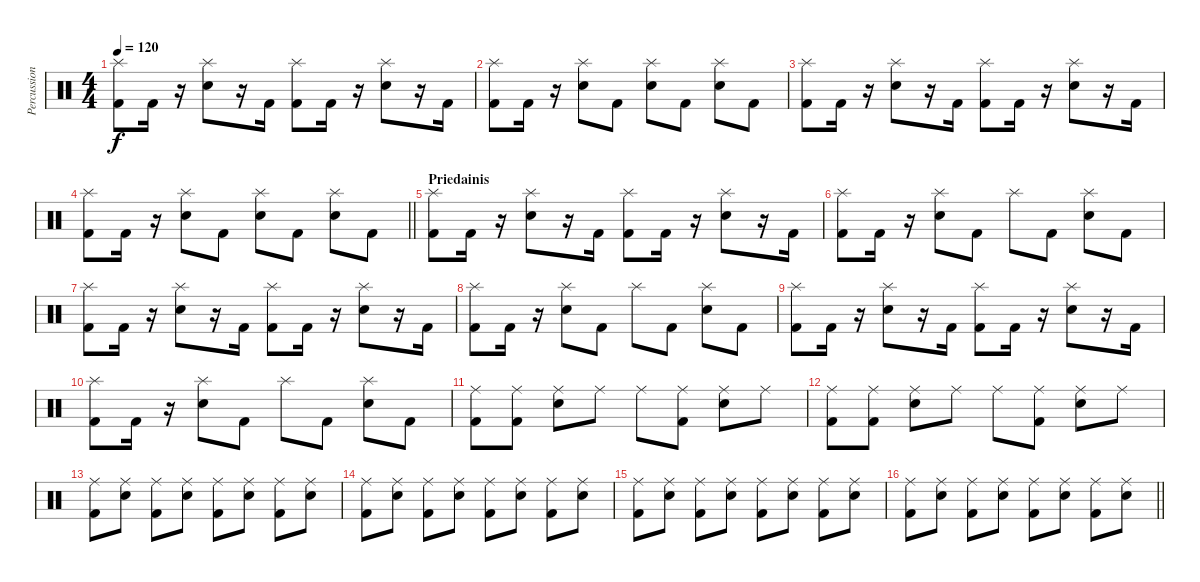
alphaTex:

\track ("Percussions" "Percussion") {instrument percussion}
\staff {score}
\articulation defaults
\ts (4 4)
\tempo 120
\clef neutral
\ks c
("Splash (hit)" "Kick (hit) 2").8{dy f} "Kick (hit) 2".16 r.16 ("Splash (hit)" "Electric Snare (hit)").8 r.16 "Kick (hit) 2".16 ("Splash (hit)" "Kick (hit) 2").8 "Kick (hit) 2".16 r.16 ("Splash (hit)" "Electric Snare (hit)").8 r.16 "Kick (hit) 2".16 |
("Splash (hit)" "Kick (hit) 2").8 "Kick (hit) 2".16 r.16 ("Splash (hit)" "Electric Snare (hit)").8 "Kick (hit) 2".8 ("Splash (hit)" "Electric Snare (hit)").8 "Kick (hit) 2".8 ("Splash (hit)" "Electric Snare (hit)").8 "Kick (hit) 2".8 |
("Splash (hit)" "Kick (hit) 2").8 "Kick (hit) 2".16 r.16 ("Splash (hit)" "Electric Snare (hit)").8 r.16 "Kick (hit) 2".16 ("Splash (hit)" "Kick (hit) 2").8 "Kick (hit) 2".16 r.16 ("Splash (hit)" "Electric Snare (hit)").8 r.16 "Kick (hit) 2".16 |
\barLineRight lightlight
("Splash (hit)" "Kick (hit) 2").8 "Kick (hit) 2".16 r.16 ("Splash (hit)" "Electric Snare (hit)").8 "Kick (hit) 2".8 ("Splash (hit)" "Electric Snare (hit)").8 "Kick (hit) 2".8 ("Splash (hit)" "Electric Snare (hit)").8 "Kick (hit) 2".8 |
\section ("" "Priedainis")
("Splash (hit)" "Kick (hit) 2").8 "Kick (hit) 2".16 r.16 ("Splash (hit)" "Electric Snare (hit)").8 r.16 "Kick (hit) 2".16 ("Splash (hit)" "Kick (hit) 2").8 "Kick (hit) 2".16 r.16 ("Splash (hit)" "Electric Snare (hit)").8 r.16 "Kick (hit) 2".16 |
("Splash (hit)" "Kick (hit) 2").8 "Kick (hit) 2".16 r.16 ("Splash (hit)" "Electric Snare (hit)").8 "Kick (hit) 2".8 "Splash (hit)".8 "Kick (hit) 2".8 ("Splash (hit)" "Electric Snare (hit)").8 "Kick (hit) 2".8 |
("Splash (hit)" "Kick (hit) 2").8 "Kick (hit) 2".16 r.16 ("Splash (hit)" "Electric Snare (hit)").8 r.16 "Kick (hit) 2".16 ("Splash (hit)" "Kick (hit) 2").8 "Kick (hit) 2".16 r.16 ("Splash (hit)" "Electric Snare (hit)").8 r.16 "Kick (hit) 2".16 |
("Splash (hit)" "Kick (hit) 2").8 "Kick (hit) 2".16 r.16 ("Splash (hit)" "Electric Snare (hit)").8 "Kick (hit) 2".8 "Splash (hit)".8 "Kick (hit) 2".8 ("Splash (hit)" "Electric Snare (hit)").8 "Kick (hit) 2".8 |
("Splash (hit)" "Kick (hit) 2").8 "Kick (hit) 2".16 r.16 ("Splash (hit)" "Electric Snare (hit)").8 r.16 "Kick (hit) 2".16 ("Splash (hit)" "Kick (hit) 2").8 "Kick (hit) 2".16 r.16 ("Splash (hit)" "Electric Snare (hit)").8 r.16 "Kick (hit) 2".16 |
("Splash (hit)" "Kick (hit) 2").8 "Kick (hit) 2".16 r.16 ("Splash (hit)" "Electric Snare (hit)").8 "Kick (hit) 2".8 "Splash (hit)".8 "Kick (hit) 2".8 ("Splash (hit)" "Electric Snare (hit)").8 "Kick (hit) 2".8 |
("Ride (middle)" "Kick (hit) 2").8 ("Ride (middle)" "Kick (hit) 2").8 ("Ride (middle)" "Electric Snare (hit)").8 "Ride (middle)".8 "Ride (middle)".8 ("Ride (middle)" "Kick (hit) 2").8 ("Ride (middle)" "Electric Snare (hit)").8 "Ride (middle)".8 |
("Ride (middle)" "Kick (hit) 2").8 ("Ride (middle)" "Kick (hit) 2").8 ("Ride (middle)" "Electric Snare (hit)").8 "Ride (middle)".8 "Ride (middle)".8 ("Ride (middle)" "Kick (hit) 2").8 ("Ride (middle)" "Electric Snare (hit)").8 "Ride (middle)".8 |
("Ride (middle)" "Kick (hit) 2").8 ("Ride (middle)" "Electric Snare (hit)").8 ("Ride (middle)" "Kick (hit) 2").8 ("Ride (middle)" "Electric Snare (hit)").8 ("Ride (middle)" "Kick (hit) 2").8 ("Ride (middle)" "Electric Snare (hit)").8 ("Ride (middle)" "Kick (hit) 2").8 ("Ride (middle)" "Electric Snare (hit)").8 |
("Ride (middle)" "Kick (hit) 2").8 ("Ride (middle)" "Electric Snare (hit)").8 ("Ride (middle)" "Kick (hit) 2").8 ("Ride (middle)" "Electric Snare (hit)").8 ("Ride (middle)" "Kick (hit) 2").8 ("Ride (middle)" "Electric Snare (hit)").8 ("Ride (middle)" "Kick (hit) 2").8 ("Ride (middle)" "Electric Snare (hit)").8 |
("Ride (middle)" "Kick (hit) 2").8 ("Ride (middle)" "Electric Snare (hit)").8 ("Ride (middle)" "Kick (hit) 2").8 ("Ride (middle)" "Electric Snare (hit)").8 ("Ride (middle)" "Kick (hit) 2").8 ("Ride (middle)" "Electric Snare (hit)").8 ("Ride (middle)" "Kick (hit) 2").8 ("Ride (middle)" "Electric Snare (hit)").8 |
\barLineRight lightlight
("Ride (middle)" "Kick (hit) 2").8 ("Ride (middle)" "Electric Snare (hit)").8 ("Ride (middle)" "Kick (hit) 2").8 ("Ride (middle)" "Electric Snare (hit)").8 ("Ride (middle)" "Kick (hit) 2").8 ("Ride (middle)" "Electric Snare (hit)").8 ("Ride (middle)" "Kick (hit) 2").8 ("Ride (middle)" "Electric Snare (hit)").8
